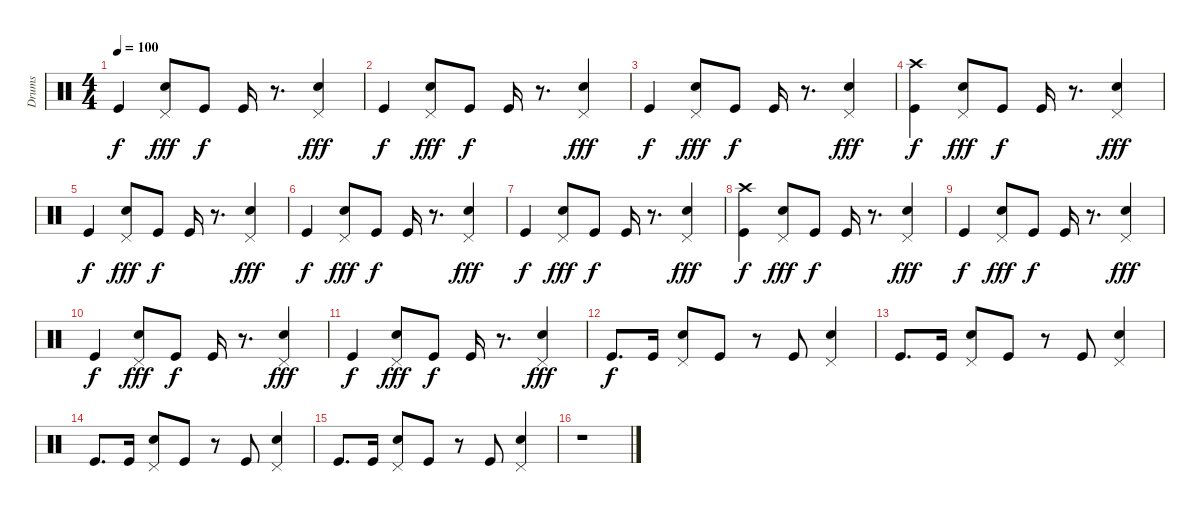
\track ("Drums" "Drums") {instrument percussion}
\staff {score}
\articulation defaults
\ts (4 4)
\tempo 100
\clef neutral
\ks c "Kick (hit)".4{dy f}
("Pedal Hi-Hat (hit)" "Electric Snare (hit)").8{dy fff} "Kick (hit)".8{dy f} "Kick (hit)".16 r.8{d} ("Pedal Hi-Hat (hit)" "Electric Snare (hit)").4{dy fff} |
"Kick (hit)".4{dy f} ("Pedal Hi-Hat (hit)" "Electric Snare (hit)").8{dy fff} "Kick (hit)".8{dy f} "Kick (hit)".16 r.8{d} ("Pedal Hi-Hat (hit)" "Electric Snare (hit)").4{dy fff} |
"Kick (hit)".4{dy f} ("Pedal Hi-Hat (hit)" "Electric Snare (hit)").8{dy fff} "Kick (hit)".8{dy f} "Kick (hit)".16 r.8{d} ("Pedal Hi-Hat (hit)" "Electric Snare (hit)").4{dy fff} |
("Crash high (hit)" "Kick (hit)").4{dy f} ("Pedal Hi-Hat (hit)" "Electric Snare (hit)").8{dy fff} "Kick (hit)".8{dy f} "Kick (hit)".16 r.8{d} ("Pedal Hi-Hat (hit)" "Electric Snare (hit)").4{dy fff} |
"Kick (hit)".4{dy f} ("Pedal Hi-Hat (hit)" "Electric Snare (hit)").8{dy fff} "Kick (hit)".8{dy f} "Kick (hit)".16 r.8{d} ("Pedal Hi-Hat (hit)" "Electric Snare (hit)").4{dy fff} |
"Kick (hit)".4{dy f} ("Pedal Hi-Hat (hit)" "Electric Snare (hit)").8{dy fff} "Kick (hit)".8{dy f} "Kick (hit)".16 r.8{d} ("Pedal Hi-Hat (hit)" "Electric Snare (hit)").4{dy fff} |
"Kick (hit)".4{dy f} ("Pedal Hi-Hat (hit)" "Electric Snare (hit)").8{dy fff} "Kick (hit)".8{dy f} "Kick (hit)".16 r.8{d} ("Pedal Hi-Hat (hit)" "Electric Snare (hit)").4{dy fff} |
("Crash high (hit)" "Kick (hit)").4{dy f} ("Pedal Hi-Hat (hit)" "Electric Snare (hit)").8{dy fff} "Kick (hit)".8{dy f} "Kick (hit)".16 r.8{d} ("Pedal Hi-Hat (hit)" "Electric Snare (hit)").4{dy fff} |
"Kick (hit)".4{dy f} ("Pedal Hi-Hat (hit)" "Electric Snare (hit)").8{dy fff} "Kick (hit)".8{dy f} "Kick (hit)".16 r.8{d} ("Pedal Hi-Hat (hit)" "Electric Snare (hit)").4{dy fff} |
"Kick (hit)".4{dy f} ("Pedal Hi-Hat (hit)" "Electric Snare (hit)").8{dy fff} "Kick (hit)".8{dy f} "Kick (hit)".16 r.8{d} ("Pedal Hi-Hat (hit)" "Electric Snare (hit)").4{dy fff} |
"Kick (hit)".4{dy f} ("Pedal Hi-Hat (hit)" "Electric Snare (hit)").8{dy fff} "Kick (hit)".8{dy f} "Kick (hit)".16 r.8{d} ("Pedal Hi-Hat (hit)" "Electric Snare (hit)").4{dy fff} |
"Kick (hit)".8{d dy f} "Kick (hit)".16 ("Pedal Hi-Hat (hit)" "Electric Snare (hit)").8 "Kick (hit)".8 r.8 "Kick (hit)".8 ("Pedal Hi-Hat (hit)" "Electric Snare (hit)").4 |
"Kick (hit)".8{d} "Kick (hit)".16 ("Pedal Hi-Hat (hit)" "Electric Snare (hit)").8 "Kick (hit)".8 r.8 "Kick (hit)".8 ("Pedal Hi-Hat (hit)" "Electric Snare (hit)").4 |
"Kick (hit)".8{d} "Kick (hit)".16 ("Pedal Hi-Hat (hit)" "Electric Snare (hit)").8 "Kick (hit)".8 r.8 "Kick (hit)".8 ("Pedal Hi-Hat (hit)" "Electric Snare (hit)").4 |
"Kick (hit)".8{d} "Kick (hit)".16 ("Pedal Hi-Hat (hit)" "Electric Snare (hit)").8 "Kick (hit)".8 r.8 "Kick (hit)".8 ("Pedal Hi-Hat (hit)" "Electric Snare (hit)").4 |
r.1
